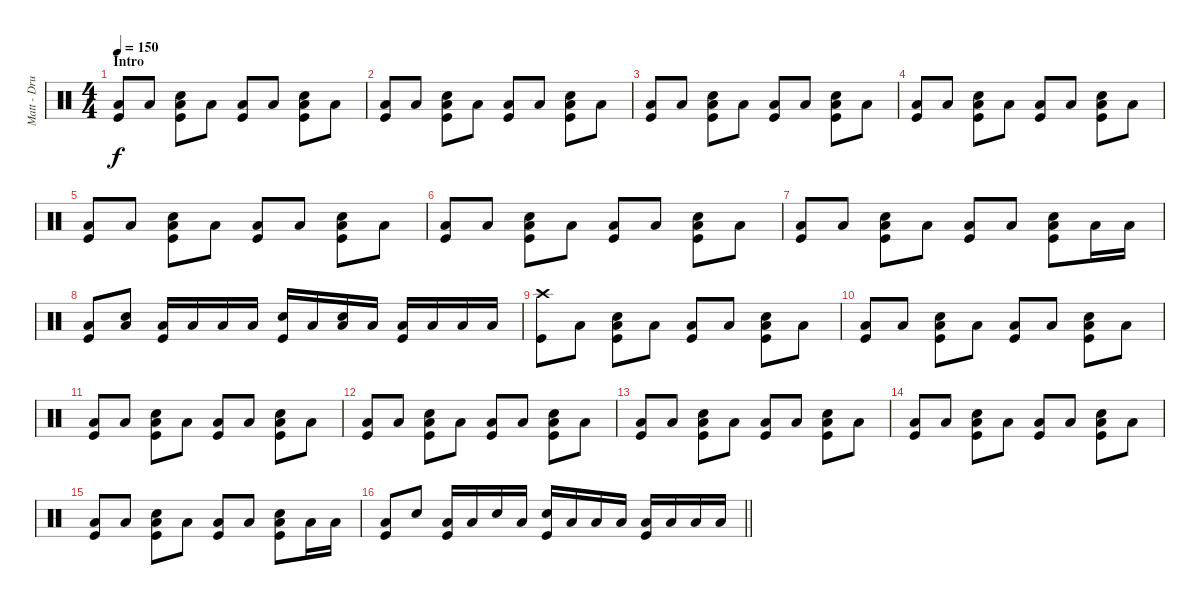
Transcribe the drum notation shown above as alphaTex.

\track ("Matt - Drums" "Matt - Dru") {instrument percussion}
\staff {score}
\articulation defaults
\ts (4 4)
\section ("" "Intro")
\tempo 150
\clef neutral
\ks c
("Low Floor Tom (hit)" "Kick (hit)").8{dy f} "Low Floor Tom (hit)".8 ("Low Floor Tom (hit)" "Electric Snare (hit)" "Kick (hit)").8 "Low Floor Tom (hit)".8 ("Low Floor Tom (hit)" "Kick (hit)").8 "Low Floor Tom (hit)".8 ("Low Floor Tom (hit)" "Electric Snare (hit)" "Kick (hit)").8 "Low Floor Tom (hit)".8 |
("Low Floor Tom (hit)" "Kick (hit)").8 "Low Floor Tom (hit)".8 ("Low Floor Tom (hit)" "Electric Snare (hit)" "Kick (hit)").8 "Low Floor Tom (hit)".8 ("Low Floor Tom (hit)" "Kick (hit)").8 "Low Floor Tom (hit)".8 ("Low Floor Tom (hit)" "Electric Snare (hit)" "Kick (hit)").8 "Low Floor Tom (hit)".8 |
("Low Floor Tom (hit)" "Kick (hit)").8 "Low Floor Tom (hit)".8 ("Low Floor Tom (hit)" "Electric Snare (hit)" "Kick (hit)").8 "Low Floor Tom (hit)".8 ("Low Floor Tom (hit)" "Kick (hit)").8 "Low Floor Tom (hit)".8 ("Low Floor Tom (hit)" "Electric Snare (hit)" "Kick (hit)").8 "Low Floor Tom (hit)".8 |
("Low Floor Tom (hit)" "Kick (hit)").8 "Low Floor Tom (hit)".8 ("Low Floor Tom (hit)" "Electric Snare (hit)" "Kick (hit)").8 "Low Floor Tom (hit)".8 ("Low Floor Tom (hit)" "Kick (hit)").8 "Low Floor Tom (hit)".8 ("Low Floor Tom (hit)" "Electric Snare (hit)" "Kick (hit)").8 "Low Floor Tom (hit)".8 |
("Low Floor Tom (hit)" "Kick (hit)").8 "Low Floor Tom (hit)".8 ("Low Floor Tom (hit)" "Electric Snare (hit)" "Kick (hit)").8 "Low Floor Tom (hit)".8 ("Low Floor Tom (hit)" "Kick (hit)").8 "Low Floor Tom (hit)".8 ("Low Floor Tom (hit)" "Electric Snare (hit)" "Kick (hit)").8 "Low Floor Tom (hit)".8 |
("Low Floor Tom (hit)" "Kick (hit)").8 "Low Floor Tom (hit)".8 ("Low Floor Tom (hit)" "Electric Snare (hit)" "Kick (hit)").8 "Low Floor Tom (hit)".8 ("Low Floor Tom (hit)" "Kick (hit)").8 "Low Floor Tom (hit)".8 ("Low Floor Tom (hit)" "Electric Snare (hit)" "Kick (hit)").8 "Low Floor Tom (hit)".8 |
("Low Floor Tom (hit)" "Kick (hit)").8 "Low Floor Tom (hit)".8 ("Low Floor Tom (hit)" "Electric Snare (hit)" "Kick (hit)").8 "Low Floor Tom (hit)".8 ("Low Floor Tom (hit)" "Kick (hit)").8 "Low Floor Tom (hit)".8 ("Low Floor Tom (hit)" "Electric Snare (hit)" "Kick (hit)").8 "Low Floor Tom (hit)".16 "Low Floor Tom (hit)".16 |
("Low Floor Tom (hit)" "Kick (hit)").8 ("Low Floor Tom (hit)" "Electric Snare (hit)").8 ("Low Floor Tom (hit)" "Kick (hit)").16 "Low Floor Tom (hit)".16 "Low Floor Tom (hit)".16 "Low Floor Tom (hit)".16 ("Electric Snare (hit)" "Kick (hit)").16 "Low Floor Tom (hit)".16 ("Low Floor Tom (hit)" "Electric Snare (hit)").16 "Low Floor Tom (hit)".16 ("Low Tom (hit)" "Kick (hit)").16 "Low Tom (hit)".16 "Low Tom (hit)".16 "Low Tom (hit)".16 |
("Crash high (hit)" "Kick (hit)").8 "Low Floor Tom (hit)".8 ("Low Floor Tom (hit)" "Electric Snare (hit)" "Kick (hit)").8 "Low Floor Tom (hit)".8 ("Low Floor Tom (hit)" "Kick (hit)").8 "Low Floor Tom (hit)".8 ("Low Floor Tom (hit)" "Electric Snare (hit)" "Kick (hit)").8 "Low Floor Tom (hit)".8 |
("Low Floor Tom (hit)" "Kick (hit)").8 "Low Floor Tom (hit)".8 ("Low Floor Tom (hit)" "Electric Snare (hit)" "Kick (hit)").8 "Low Floor Tom (hit)".8 ("Low Floor Tom (hit)" "Kick (hit)").8 "Low Floor Tom (hit)".8 ("Low Floor Tom (hit)" "Electric Snare (hit)" "Kick (hit)").8 "Low Floor Tom (hit)".8 |
("Low Floor Tom (hit)" "Kick (hit)").8 "Low Floor Tom (hit)".8 ("Low Floor Tom (hit)" "Electric Snare (hit)" "Kick (hit)").8 "Low Floor Tom (hit)".8 ("Low Floor Tom (hit)" "Kick (hit)").8 "Low Floor Tom (hit)".8 ("Low Floor Tom (hit)" "Electric Snare (hit)" "Kick (hit)").8 "Low Floor Tom (hit)".8 |
("Low Floor Tom (hit)" "Kick (hit)").8 "Low Floor Tom (hit)".8 ("Low Floor Tom (hit)" "Electric Snare (hit)" "Kick (hit)").8 "Low Floor Tom (hit)".8 ("Low Floor Tom (hit)" "Kick (hit)").8 "Low Floor Tom (hit)".8 ("Low Floor Tom (hit)" "Electric Snare (hit)" "Kick (hit)").8 "Low Floor Tom (hit)".8 |
("Low Floor Tom (hit)" "Kick (hit)").8 "Low Floor Tom (hit)".8 ("Low Floor Tom (hit)" "Electric Snare (hit)" "Kick (hit)").8 "Low Floor Tom (hit)".8 ("Low Floor Tom (hit)" "Kick (hit)").8 "Low Floor Tom (hit)".8 ("Low Floor Tom (hit)" "Electric Snare (hit)" "Kick (hit)").8 "Low Floor Tom (hit)".8 |
("Low Floor Tom (hit)" "Kick (hit)").8 "Low Floor Tom (hit)".8 ("Low Floor Tom (hit)" "Electric Snare (hit)" "Kick (hit)").8 "Low Floor Tom (hit)".8 ("Low Floor Tom (hit)" "Kick (hit)").8 "Low Floor Tom (hit)".8 ("Low Floor Tom (hit)" "Electric Snare (hit)" "Kick (hit)").8 "Low Floor Tom (hit)".8 |
("Low Floor Tom (hit)" "Kick (hit)").8 "Low Floor Tom (hit)".8 ("Low Floor Tom (hit)" "Electric Snare (hit)" "Kick (hit)").8 "Low Floor Tom (hit)".8 ("Low Floor Tom (hit)" "Kick (hit)").8 "Low Floor Tom (hit)".8 ("Low Floor Tom (hit)" "Electric Snare (hit)" "Kick (hit)").8 "Low Floor Tom (hit)".16 "Low Floor Tom (hit)".16 |
\barLineRight lightlight
("Low Floor Tom (hit)" "Kick (hit)").8 "Electric Snare (hit)".8 ("Low Floor Tom (hit)" "Kick (hit)").16 "Low Floor Tom (hit)".16 "Electric Snare (hit)".16 "Low Floor Tom (hit)".16 ("Electric Snare (hit)" "Kick (hit)").16 "Low Floor Tom (hit)".16 "Low Floor Tom (hit)".16 "Low Floor Tom (hit)".16 ("Low Floor Tom (hit)" "Kick (hit)").16 "Low Tom (hit)".16 "Low Tom (hit)".16 "Low Tom (hit)".16
